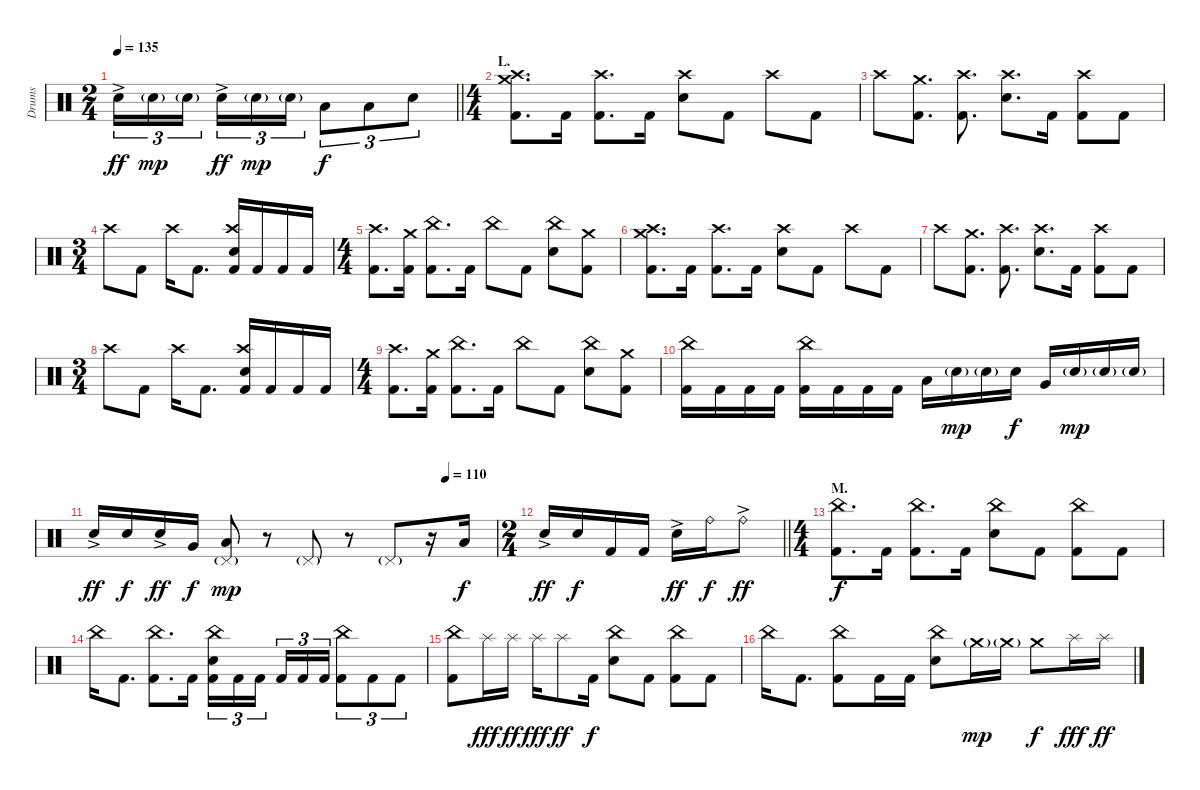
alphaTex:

\track ("Drums" "Drums") {instrument percussion}
\staff {score}
\articulation defaults
\ts (2 4)
\tempo 135
\clef neutral
\barLineRight lightlight
\ks c "Electric Snare (hit)"{ac}.16{tu (3 2) dy ff} "Electric Snare (hit)"{g}.16{tu (3 2) dy mp} "Electric Snare (hit)"{g}.16{tu (3 2) beam splitsecondary} "Electric Snare (hit)"{ac}.16{tu (3 2) dy ff} "Electric Snare (hit)"{g}.16{tu (3 2) dy mp} "Electric Snare (hit)"{g}.16{tu (3 2)} "Low Tom (hit)".8{tu (3 2) dy f} "Low Tom (hit)".8{tu (3 2)} "Electric Snare (hit)".8{tu (3 2)}
|
\ts (4 4)
\section ("" "L.")
("Crash medium (hit)" "Crash high (hit)" "Kick (hit) 2").8{d} "Kick (hit) 2".16 ("Crash high (hit)" "Kick (hit) 2").8{d} "Kick (hit) 2".16 ("Crash high (hit)" "Electric Snare (hit)").8 "Kick (hit) 2".8 "Crash high (hit)".8 "Kick (hit) 2".8 |
"Crash high (hit)".8 ("Crash medium (hit)" "Kick (hit) 2").8{d} ("Crash high (hit)" "Kick (hit) 2").8{d} ("Crash high (hit)" "Electric Snare (hit)").8{d} "Kick (hit) 2".16 ("Crash high (hit)" "Kick (hit) 2").8 "Kick (hit) 2".8 |
\ts (3 4)
"Crash high (hit)".8 "Kick (hit) 2".8 "Crash high (hit)".16 "Kick (hit) 2".8{d} ("Crash high (hit)" "Electric Snare (hit)" "Kick (hit) 2").16 "Kick (hit) 2".16 "Kick (hit) 2".16 "Kick (hit) 2".16 |
\ts (4 4)
("Crash high (hit)" "Kick (hit) 2").8{d} ("Crash medium (hit)" "Kick (hit) 2").16 ("China (hit)" "Kick (hit) 2").8{d} "Kick (hit) 2".16 "China (hit)".8 "Kick (hit) 2".8 ("China (hit)" "Electric Snare (hit)").8 ("Crash medium (hit)" "Kick (hit) 2").8 |
("Crash medium (hit)" "Crash high (hit)" "Kick (hit) 2").8{d} "Kick (hit) 2".16 ("Crash high (hit)" "Kick (hit) 2").8{d} "Kick (hit) 2".16 ("Crash high (hit)" "Electric Snare (hit)").8 "Kick (hit) 2".8 "Crash high (hit)".8 "Kick (hit) 2".8 |
"Crash high (hit)".8 ("Crash medium (hit)" "Kick (hit) 2").8{d} ("Crash high (hit)" "Kick (hit) 2").8{d} ("Crash high (hit)" "Electric Snare (hit)").8{d} "Kick (hit) 2".16 ("Crash high (hit)" "Kick (hit) 2").8 "Kick (hit) 2".8 |
\ts (3 4)
"Crash high (hit)".8 "Kick (hit) 2".8 "Crash high (hit)".16 "Kick (hit) 2".8{d} ("Crash high (hit)" "Electric Snare (hit)" "Kick (hit) 2").16 "Kick (hit) 2".16 "Kick (hit) 2".16 "Kick (hit) 2".16 |
\ts (4 4)
("Crash high (hit)" "Kick (hit) 2").8{d} ("Crash medium (hit)" "Kick (hit) 2").16 ("China (hit)" "Kick (hit) 2").8{d} "Kick (hit) 2".16 "China (hit)".8 "Kick (hit) 2".8 ("China (hit)" "Electric Snare (hit)").8 ("Crash medium (hit)" "Kick (hit) 2").8 |
("China (hit)" "Kick (hit) 2").16 "Kick (hit) 2".16 "Kick (hit) 2".16 "Kick (hit) 2".16 ("China (hit)" "Kick (hit) 2").16 "Kick (hit) 2".16 "Kick (hit) 2".16 "Kick (hit) 2".16 "Low Tom (hit)".16 "Electric Snare (hit)"{g}.16{dy mp} "Electric Snare (hit)"{g}.16 "Electric Snare (hit)".16{dy f} "Very Low Tom (hit)".16 "Electric Snare (hit)"{g}.16{dy mp} "Electric Snare (hit)"{g}.16 "Electric Snare (hit)"{g}.16 |
\tempo (110 0.875)
"Electric Snare (hit)"{ac}.16{dy ff} "Electric Snare (hit)".16{dy f} "Electric Snare (hit)"{ac}.16{dy ff} "Very Low Tom (hit)".16{dy f} ("Pedal Hi-Hat (hit)"{g} "Low Floor Tom (hit)").8{dy mp} r.8 "Pedal Hi-Hat (hit)"{g}.8 r.8 "Pedal Hi-Hat (hit)"{g}.8 r.16 "Low Floor Tom (hit)".16{dy f} |
\ts (2 4)
\barLineRight lightlight "Electric Snare (hit)"{ac}.16{dy ff} "Electric Snare (hit)".16{dy f} "Kick (hit) 2".16 "Kick (hit) 2".16 "Electric Snare (hit)"{ac}.16{dy ff} "Ride (bell)".16{dy f} "Ride (bell)"{ac}.8{dy ff}
|
\ts (4 4)
\section ("" "M.")
("China (hit)" "Kick (hit) 2").8{d dy f} "Kick (hit) 2".16 ("China (hit)" "Kick (hit) 2").8{d} "Kick (hit) 2".16 ("China (hit)" "Electric Snare (hit)").8 "Kick (hit) 2".8 ("China (hit)" "Kick (hit) 2").8 "Kick (hit) 2".8 |
"China (hit)".16 "Kick (hit) 2".8{d} ("China (hit)" "Kick (hit) 2").8{d} "Kick (hit) 2".16 ("China (hit)" "Electric Snare (hit)" "Kick (hit) 2").16{tu (3 2)} "Kick (hit) 2".16{tu (3 2)} "Kick (hit) 2".16{tu (3 2) beam splitsecondary} "Kick (hit) 2".16{tu (3 2)} "Kick (hit) 2".16{tu (3 2)} "Kick (hit) 2".16{tu (3 2)} ("China (hit)" "Kick (hit) 2").8{tu (3 2)} "Kick (hit) 2".8{tu (3 2)} "Kick (hit) 2".8{tu (3 2)} |
("China (hit)" "Kick (hit) 2").8 "Splash (hit)".16{dy fff} "Splash (hit)".16{dy ff} "Splash (hit)".16{dy fff} "Splash (hit)".8{dy ff} "Kick (hit) 2".16{dy f} ("China (hit)" "Electric Snare (hit)").8 "Kick (hit) 2".8 ("China (hit)" "Kick (hit) 2").8 "Kick (hit) 2".8 |
"China (hit)".16 "Kick (hit) 2".8{d} ("China (hit)" "Kick (hit) 2").8 "Kick (hit) 2".16 "Kick (hit) 2".16 ("China (hit)" "Electric Snare (hit)").8 "Crash medium (hit)"{g}.16{dy mp} "Crash medium (hit)"{g}.16 "Crash medium (hit)".8{dy f} "Splash (hit)".16{dy fff} "Splash (hit)".16{dy ff}
